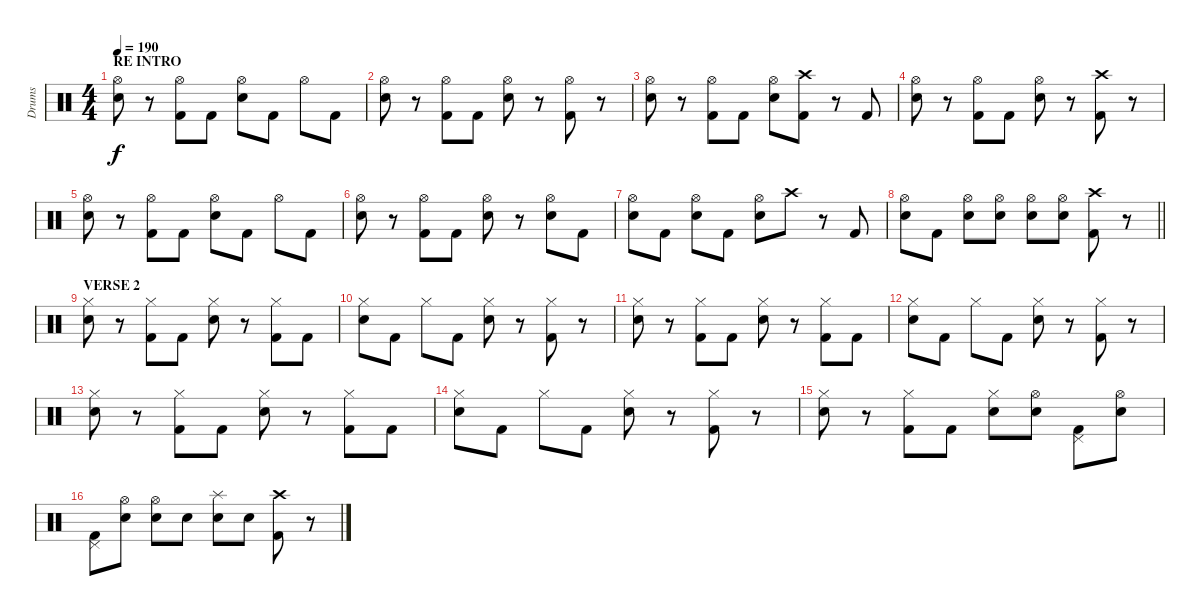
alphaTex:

\track ("Drums" "Drums") {instrument percussion}
\staff {score}
\articulation defaults
\ts (4 4)
\section ("" "RE INTRO")
\tempo 190
\clef neutral
\ks c
("Snare (hit) 2" "Hi-Hat (open)").8{dy f} r.8 ("Kick (hit) 2" "Hi-Hat (open)").8 "Kick (hit) 2".8 ("Snare (hit) 2" "Hi-Hat (open)").8 "Kick (hit) 2".8 "Hi-Hat (open)".8 "Kick (hit) 2".8 |
("Snare (hit) 2" "Hi-Hat (open)").8 r.8 ("Kick (hit) 2" "Hi-Hat (open)").8 "Kick (hit) 2".8 ("Snare (hit) 2" "Hi-Hat (open)").8 r.8 ("Kick (hit) 2" "Hi-Hat (open)").8 r.8 |
("Snare (hit) 2" "Hi-Hat (open)").8 r.8 ("Kick (hit) 2" "Hi-Hat (open)").8 "Kick (hit) 2".8 ("Snare (hit) 2" "Hi-Hat (open)").8 ("Kick (hit) 2" "Crash high (hit)").8 r.8 "Kick (hit) 2".8 |
("Snare (hit) 2" "Hi-Hat (open)").8 r.8 ("Kick (hit) 2" "Hi-Hat (open)").8 "Kick (hit) 2".8 ("Snare (hit) 2" "Hi-Hat (open)").8 r.8 ("Kick (hit) 2" "Crash high (hit)").8 r.8 |
("Snare (hit) 2" "Hi-Hat (open)").8 r.8 ("Kick (hit) 2" "Hi-Hat (open)").8 "Kick (hit) 2".8 ("Snare (hit) 2" "Hi-Hat (open)").8 "Kick (hit) 2".8 "Hi-Hat (open)".8 "Kick (hit) 2".8 |
("Snare (hit) 2" "Hi-Hat (open)").8 r.8 ("Kick (hit) 2" "Hi-Hat (open)").8 "Kick (hit) 2".8 ("Snare (hit) 2" "Hi-Hat (open)").8 r.8 ("Snare (hit) 2" "Hi-Hat (open)").8 "Kick (hit) 2".8 |
("Snare (hit) 2" "Hi-Hat (open)").8 "Kick (hit) 2".8 ("Snare (hit) 2" "Hi-Hat (open)").8 "Kick (hit) 2".8 ("Snare (hit) 2" "Hi-Hat (open)").8 "Crash high (hit)".8 r.8 "Kick (hit) 2".8 |
\barLineRight lightlight
("Snare (hit) 2" "Hi-Hat (open)").8 "Kick (hit) 2".8 ("Snare (hit) 2" "Hi-Hat (open)").8 ("Snare (hit) 2" "Hi-Hat (open)").8 ("Snare (hit) 2" "Hi-Hat (open)").8 ("Snare (hit) 2" "Hi-Hat (open)").8 ("Kick (hit) 2" "Crash high (hit)").8 r.8 |
\section ("" "VERSE 2")
("Snare (hit) 2" "Hi-Hat (closed)").8 r.8 ("Kick (hit) 2" "Hi-Hat (closed)").8 "Kick (hit) 2".8 ("Snare (hit) 2" "Hi-Hat (closed)").8 r.8 ("Kick (hit) 2" "Hi-Hat (closed)").8 "Kick (hit) 2".8 |
("Snare (hit) 2" "Hi-Hat (closed)").8 "Kick (hit) 2".8 "Hi-Hat (closed)".8 "Kick (hit) 2".8 ("Snare (hit) 2" "Hi-Hat (closed)").8 r.8 ("Kick (hit) 2" "Hi-Hat (closed)").8 r.8 |
("Snare (hit) 2" "Hi-Hat (closed)").8 r.8 ("Kick (hit) 2" "Hi-Hat (closed)").8 "Kick (hit) 2".8 ("Snare (hit) 2" "Hi-Hat (closed)").8 r.8 ("Kick (hit) 2" "Hi-Hat (closed)").8 "Kick (hit) 2".8 |
("Snare (hit) 2" "Hi-Hat (closed)").8 "Kick (hit) 2".8 "Hi-Hat (closed)".8 "Kick (hit) 2".8 ("Snare (hit) 2" "Hi-Hat (closed)").8 r.8 ("Kick (hit) 2" "Hi-Hat (closed)").8 r.8 |
("Snare (hit) 2" "Hi-Hat (closed)").8 r.8 ("Kick (hit) 2" "Hi-Hat (closed)").8 "Kick (hit) 2".8 ("Snare (hit) 2" "Hi-Hat (closed)").8 r.8 ("Kick (hit) 2" "Hi-Hat (closed)").8 "Kick (hit) 2".8 |
("Snare (hit) 2" "Hi-Hat (closed)").8 "Kick (hit) 2".8 "Hi-Hat (closed)".8 "Kick (hit) 2".8 ("Snare (hit) 2" "Hi-Hat (closed)").8 r.8 ("Kick (hit) 2" "Hi-Hat (closed)").8 r.8 |
("Snare (hit) 2" "Hi-Hat (closed)").8 r.8 ("Kick (hit) 2" "Hi-Hat (closed)").8 "Kick (hit) 2".8 ("Snare (hit) 2" "Hi-Hat (closed)").8 ("Snare (hit) 2" "Hi-Hat (open)").8 ("Kick (hit) 2" "Pedal Hi-Hat (hit)").8 ("Snare (hit) 2" "Hi-Hat (open)").8 |
("Kick (hit) 2" "Pedal Hi-Hat (hit)").8 ("Snare (hit) 2" "Hi-Hat (open)").8 ("Snare (hit) 2" "Hi-Hat (open)").8 "Snare (hit) 2".8 ("Snare (hit) 2" "Splash (hit)").8 "Snare (hit) 2".8 ("Kick (hit) 2" "Crash high (hit)").8 r.8
